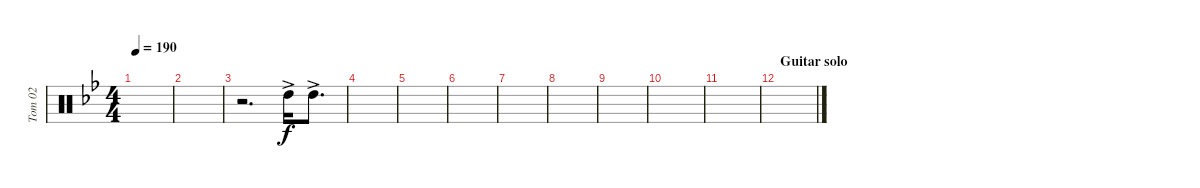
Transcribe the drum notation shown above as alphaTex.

\track ("Tom 02" "Tom 02") {instrument percussion}
\staff {score}
\articulation defaults
\ts (4 4)
\tempo 190
\clef neutral
\ks bb
|
|
r.2{d} "High Tom (hit)"{ac}.16 "High Tom (hit)"{ac}.8{d} |
|
|
|
|
|
|
|
|
\section ("" "Guitar solo")
